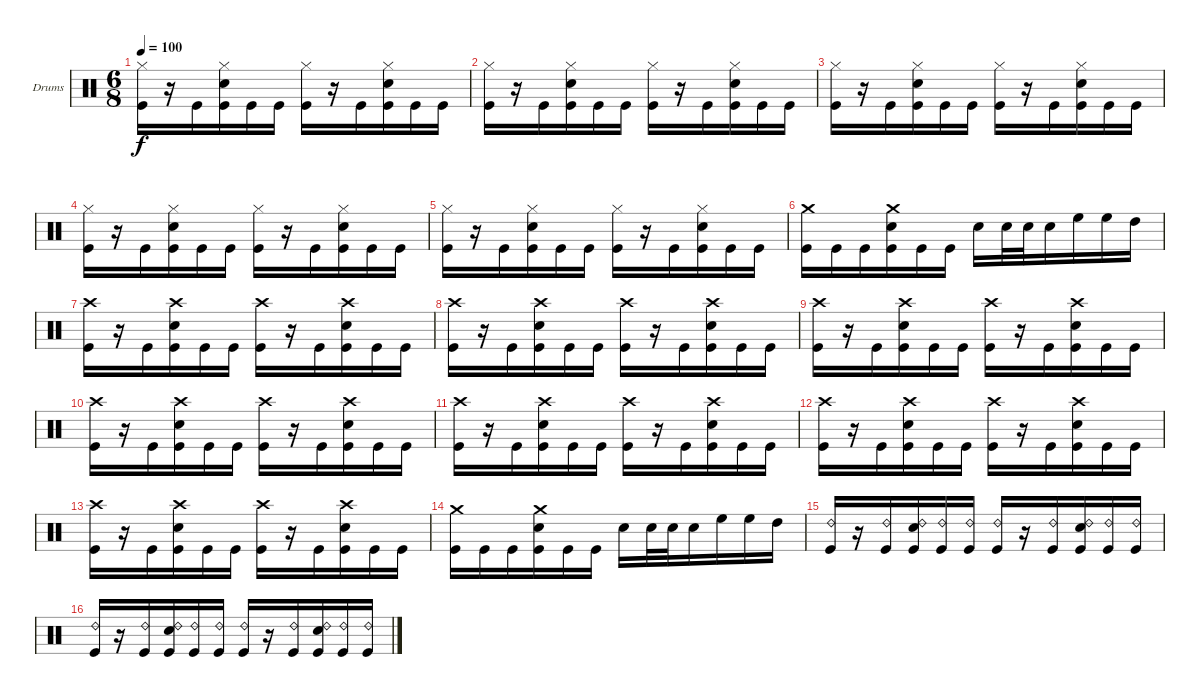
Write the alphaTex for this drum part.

\defaultSystemsLayout 4
\bracketExtendMode groupsimilarinstruments
\firstSystemTrackNameOrientation horizontal
\otherSystemsTrackNameOrientation horizontal
\track ("Drumkit" "Drums") {instrument percussion}
\staff {score}
\articulation defaults
\ts (6 8)
\tempo 100
\clef neutral
\scale
0.333333
\ks c
("Kick (hit)" "Hi-Hat (closed)").16{lyrics (0 "") lyrics (1 "") lyrics (2 "") lyrics (3 "") lyrics (4 "") dy f} r.16 "Kick (hit)".16{lyrics (0 "") lyrics (1 "") lyrics (2 "") lyrics (3 "") lyrics (4 "")} ("Kick (hit)" "Snare (hit) 2" "Hi-Hat (closed)").16 "Kick (hit)".16 "Kick (hit)".16 ("Kick (hit)" "Hi-Hat (closed)").16 r.16 "Kick (hit)".16 ("Kick (hit)" "Snare (hit) 2" "Hi-Hat (closed)").16 "Kick (hit)".16 "Kick (hit)".16 |
\scale
0.333333 ("Kick (hit)" "Hi-Hat (closed)").16{lyrics (0 "") lyrics (1 "") lyrics (2 "") lyrics (3 "") lyrics (4 "")} r.16 "Kick (hit)".16{lyrics (0 "") lyrics (1 "") lyrics (2 "") lyrics (3 "") lyrics (4 "")} ("Kick (hit)" "Snare (hit) 2" "Hi-Hat (closed)").16 "Kick (hit)".16 "Kick (hit)".16 ("Kick (hit)" "Hi-Hat (closed)").16 r.16 "Kick (hit)".16 ("Kick (hit)" "Snare (hit) 2" "Hi-Hat (closed)").16 "Kick (hit)".16 "Kick (hit)".16 |
\scale
0.333333 ("Kick (hit)" "Hi-Hat (closed)").16 r.16 "Kick (hit)".16 ("Kick (hit)" "Snare (hit) 2" "Hi-Hat (closed)").16 "Kick (hit)".16 "Kick (hit)".16 ("Kick (hit)" "Hi-Hat (closed)").16 r.16 "Kick (hit)".16 ("Kick (hit)" "Snare (hit) 2" "Hi-Hat (closed)").16 "Kick (hit)".16 "Kick (hit)".16 |
\scale
0.333333 ("Kick (hit)" "Hi-Hat (closed)").16 r.16 "Kick (hit)".16 ("Kick (hit)" "Snare (hit) 2" "Hi-Hat (closed)").16 "Kick (hit)".16 "Kick (hit)".16 ("Kick (hit)" "Hi-Hat (closed)").16 r.16 "Kick (hit)".16 ("Kick (hit)" "Snare (hit) 2" "Hi-Hat (closed)").16 "Kick (hit)".16 "Kick (hit)".16 |
\scale
0.333333 ("Kick (hit)" "Hi-Hat (closed)").16 r.16 "Kick (hit)".16 ("Kick (hit)" "Snare (hit) 2" "Hi-Hat (closed)").16 "Kick (hit)".16 "Kick (hit)".16 ("Kick (hit)" "Hi-Hat (closed)").16 r.16 "Kick (hit)".16 ("Kick (hit)" "Snare (hit) 2" "Hi-Hat (closed)").16 "Kick (hit)".16 "Kick (hit)".16 |
\scale
0.333333 ("Kick (hit)" "Crash medium (hit)").16 "Kick (hit)".16 "Kick (hit)".16 ("Kick (hit)" "Snare (hit) 2" "Crash medium (hit)").16 "Kick (hit)".16 "Kick (hit)".16 "Snare (hit) 2".16 "Snare (hit) 2".32 "Snare (hit) 2".32 "Snare (hit) 2".16 "High Floor Tom (hit)".16 "High Floor Tom (hit)".16 "High Tom (hit)".16 |
("Kick (hit)" "Crash high (hit)").16 r.16 "Kick (hit)".16 ("Kick (hit)" "Snare (hit) 2" "Crash high (hit)").16 "Kick (hit)".16 "Kick (hit)".16 ("Kick (hit)" "Crash high (hit)").16 r.16 "Kick (hit)".16 ("Kick (hit)" "Snare (hit) 2" "Crash high (hit)").16 "Kick (hit)".16 "Kick (hit)".16 |
("Kick (hit)" "Crash high (hit)").16 r.16 "Kick (hit)".16 ("Kick (hit)" "Snare (hit) 2" "Crash high (hit)").16 "Kick (hit)".16 "Kick (hit)".16 ("Kick (hit)" "Crash high (hit)").16 r.16 "Kick (hit)".16 ("Kick (hit)" "Snare (hit) 2" "Crash high (hit)").16 "Kick (hit)".16 "Kick (hit)".16 |
("Kick (hit)" "Crash high (hit)").16 r.16 "Kick (hit)".16 ("Kick (hit)" "Snare (hit) 2" "Crash high (hit)").16 "Kick (hit)".16 "Kick (hit)".16 ("Kick (hit)" "Crash high (hit)").16 r.16 "Kick (hit)".16 ("Kick (hit)" "Snare (hit) 2" "Crash high (hit)").16 "Kick (hit)".16 "Kick (hit)".16 |
("Kick (hit)" "Crash high (hit)").16 r.16 "Kick (hit)".16 ("Kick (hit)" "Snare (hit) 2" "Crash high (hit)").16 "Kick (hit)".16 "Kick (hit)".16 ("Kick (hit)" "Crash high (hit)").16 r.16 "Kick (hit)".16 ("Kick (hit)" "Snare (hit) 2" "Crash high (hit)").16 "Kick (hit)".16 "Kick (hit)".16 |
("Kick (hit)" "Crash high (hit)").16 r.16 "Kick (hit)".16 ("Kick (hit)" "Snare (hit) 2" "Crash high (hit)").16 "Kick (hit)".16 "Kick (hit)".16 ("Kick (hit)" "Crash high (hit)").16 r.16 "Kick (hit)".16 ("Kick (hit)" "Snare (hit) 2" "Crash high (hit)").16 "Kick (hit)".16 "Kick (hit)".16 |
("Kick (hit)" "Crash high (hit)").16 r.16 "Kick (hit)".16 ("Kick (hit)" "Snare (hit) 2" "Crash high (hit)").16 "Kick (hit)".16 "Kick (hit)".16 ("Kick (hit)" "Crash high (hit)").16 r.16 "Kick (hit)".16 ("Kick (hit)" "Snare (hit) 2" "Crash high (hit)").16 "Kick (hit)".16 "Kick (hit)".16 |
("Kick (hit)" "Crash high (hit)").16 r.16 "Kick (hit)".16 ("Kick (hit)" "Snare (hit) 2" "Crash high (hit)").16 "Kick (hit)".16 "Kick (hit)".16 ("Kick (hit)" "Crash high (hit)").16 r.16 "Kick (hit)".16 ("Kick (hit)" "Snare (hit) 2" "Crash high (hit)").16 "Kick (hit)".16 "Kick (hit)".16 |
("Kick (hit)" "Crash medium (hit)").16 "Kick (hit)".16 "Kick (hit)".16 ("Kick (hit)" "Snare (hit) 2" "Crash medium (hit)").16 "Kick (hit)".16 "Kick (hit)".16 "Snare (hit) 2".16 "Snare (hit) 2".32 "Snare (hit) 2".32 "Snare (hit) 2".16 "High Floor Tom (hit)".16 "High Floor Tom (hit)".16 "High Tom (hit)".16 |
("Kick (hit)" "Ride (bell) 2").16 r.16 ("Kick (hit)" "Ride (bell) 2").16 ("Kick (hit)" "Snare (hit) 2" "Ride (bell) 2").16 ("Kick (hit)" "Ride (bell) 2").16 ("Kick (hit)" "Ride (bell) 2").16 ("Kick (hit)" "Ride (bell) 2").16 r.16 ("Kick (hit)" "Ride (bell) 2").16 ("Kick (hit)" "Snare (hit) 2" "Ride (bell) 2").16 ("Kick (hit)" "Ride (bell) 2").16 ("Kick (hit)" "Ride (bell) 2").16 |
("Kick (hit)" "Ride (bell) 2").16 r.16 ("Kick (hit)" "Ride (bell) 2").16 ("Kick (hit)" "Snare (hit) 2" "Ride (bell) 2").16 ("Kick (hit)" "Ride (bell) 2").16 ("Kick (hit)" "Ride (bell) 2").16 ("Kick (hit)" "Ride (bell) 2").16 r.16 ("Kick (hit)" "Ride (bell) 2").16 ("Kick (hit)" "Snare (hit) 2" "Ride (bell) 2").16 ("Kick (hit)" "Ride (bell) 2").16 ("Kick (hit)" "Ride (bell) 2").16
